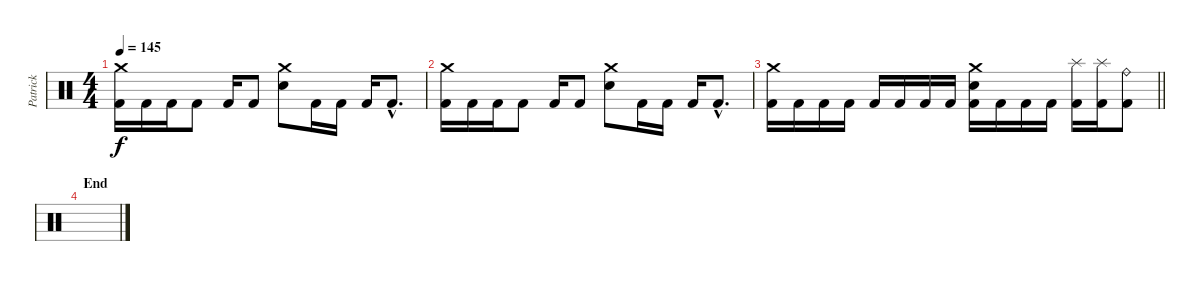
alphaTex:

\track ("Patrick" "Patrick") {instrument percussion}
\staff {score}
\articulation defaults
\ts (4 4)
\tempo 145
\clef neutral
\ks c
("Crash medium (hit)" "Kick (hit) 2").16{dy f} "Kick (hit) 2".16 "Kick (hit) 2".16 "Kick (hit) 2".8 "Kick (hit) 2".16 "Kick (hit) 2".8 ("Crash medium (hit)" "Electric Snare (hit)").8 "Kick (hit) 2".16 "Kick (hit) 2".16 "Kick (hit) 2".16 "Kick (hit) 2"{hac}.8{d} |
("Crash medium (hit)" "Kick (hit) 2").16 "Kick (hit) 2".16 "Kick (hit) 2".16 "Kick (hit) 2".8 "Kick (hit) 2".16 "Kick (hit) 2".8 ("Crash medium (hit)" "Electric Snare (hit)").8 "Kick (hit) 2".16 "Kick (hit) 2".16 "Kick (hit) 2".16 "Kick (hit) 2"{hac}.8{d} |
\barLineRight lightlight
("Crash medium (hit)" "Kick (hit) 2").16 "Kick (hit) 2".16 "Kick (hit) 2".16 "Kick (hit) 2".16 "Kick (hit) 2".16 "Kick (hit) 2".16 "Kick (hit) 2".16 "Kick (hit) 2".16 ("Crash medium (hit)" "Electric Snare (hit)" "Kick (hit) 2").16 "Kick (hit) 2".16 "Kick (hit) 2".16 "Kick (hit) 2".16 ("Splash (hit)" "Kick (hit) 2").16 ("Splash (hit)" "Kick (hit) 2").16 ("Ride (bell)" "Kick (hit) 2").8 |
\section ("" "End")
